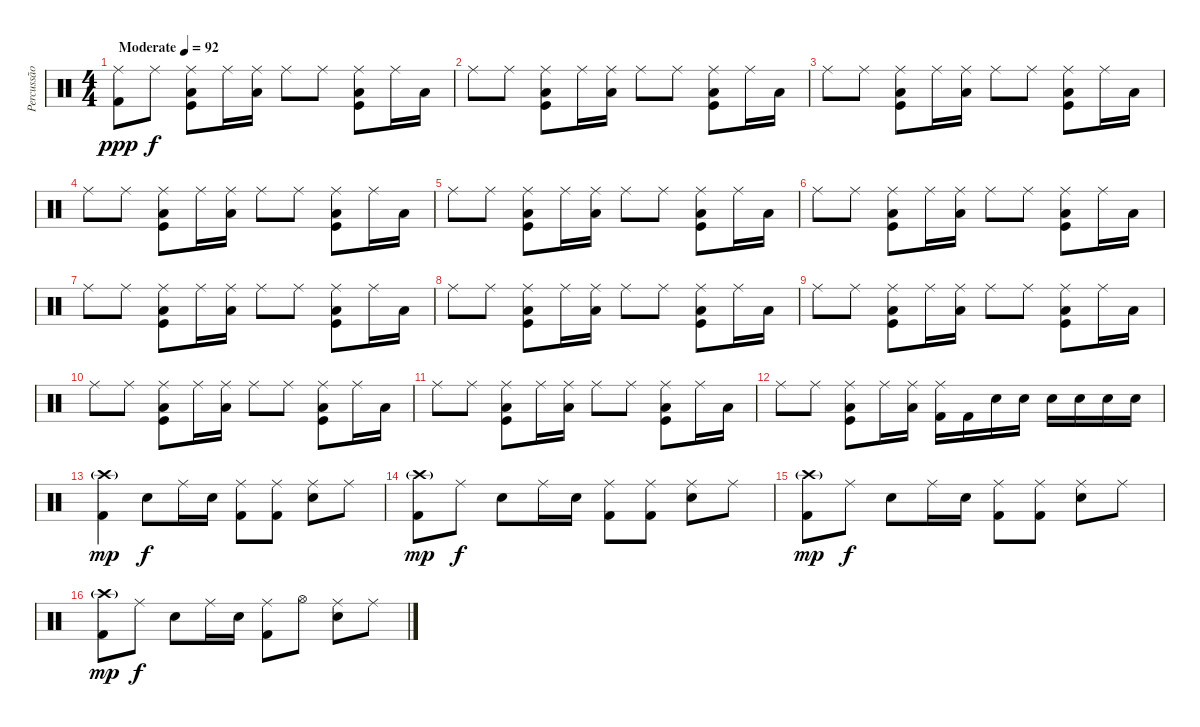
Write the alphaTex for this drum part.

\track ("Percussão - Drums" "Percussão ") {instrument percussion}
\staff {score}
\articulation defaults
\ts (4 4)
\tempo (92 "Moderate")
\clef neutral
\ks c
("Ride (middle)" "Kick (hit) 2").8{dy ppp} "Ride (middle)".8{dy f} ("Ride (middle)" "Kick (hit)" "Low Floor Tom (hit)").8 "Ride (middle)".16 ("Ride (middle)" "Low Floor Tom (hit)").16 "Ride (middle)".8 "Ride (middle)".8 ("Ride (middle)" "Kick (hit)" "Low Floor Tom (hit)").8 "Ride (middle)".16 "Low Floor Tom (hit)".16 |
"Ride (middle)".8 "Ride (middle)".8 ("Ride (middle)" "Kick (hit)" "Low Floor Tom (hit)").8 "Ride (middle)".16 ("Ride (middle)" "Low Floor Tom (hit)").16 "Ride (middle)".8 "Ride (middle)".8 ("Ride (middle)" "Kick (hit)" "Low Floor Tom (hit)").8 "Ride (middle)".16 "Low Floor Tom (hit)".16 |
"Ride (middle)".8 "Ride (middle)".8 ("Ride (middle)" "Kick (hit)" "Low Floor Tom (hit)").8 "Ride (middle)".16 ("Ride (middle)" "Low Floor Tom (hit)").16 "Ride (middle)".8 "Ride (middle)".8 ("Ride (middle)" "Kick (hit)" "Low Floor Tom (hit)").8 "Ride (middle)".16 "Low Floor Tom (hit)".16 |
"Ride (middle)".8 "Ride (middle)".8 ("Ride (middle)" "Kick (hit)" "Low Floor Tom (hit)").8 "Ride (middle)".16 ("Ride (middle)" "Low Floor Tom (hit)").16 "Ride (middle)".8 "Ride (middle)".8 ("Ride (middle)" "Kick (hit)" "Low Floor Tom (hit)").8 "Ride (middle)".16 "Low Floor Tom (hit)".16 |
"Ride (middle)".8 "Ride (middle)".8 ("Ride (middle)" "Kick (hit)" "Low Floor Tom (hit)").8 "Ride (middle)".16 ("Ride (middle)" "Low Floor Tom (hit)").16 "Ride (middle)".8 "Ride (middle)".8 ("Ride (middle)" "Kick (hit)" "Low Floor Tom (hit)").8 "Ride (middle)".16 "Low Floor Tom (hit)".16 |
"Ride (middle)".8 "Ride (middle)".8 ("Ride (middle)" "Kick (hit)" "Low Floor Tom (hit)").8 "Ride (middle)".16 ("Ride (middle)" "Low Floor Tom (hit)").16 "Ride (middle)".8 "Ride (middle)".8 ("Ride (middle)" "Kick (hit)" "Low Floor Tom (hit)").8 "Ride (middle)".16 "Low Floor Tom (hit)".16 |
"Ride (middle)".8 "Ride (middle)".8 ("Ride (middle)" "Kick (hit)" "Low Floor Tom (hit)").8 "Ride (middle)".16 ("Ride (middle)" "Low Floor Tom (hit)").16 "Ride (middle)".8 "Ride (middle)".8 ("Ride (middle)" "Kick (hit)" "Low Floor Tom (hit)").8 "Ride (middle)".16 "Low Floor Tom (hit)".16 |
"Ride (middle)".8 "Ride (middle)".8 ("Ride (middle)" "Kick (hit)" "Low Floor Tom (hit)").8 "Ride (middle)".16 ("Ride (middle)" "Low Floor Tom (hit)").16 "Ride (middle)".8 "Ride (middle)".8 ("Ride (middle)" "Kick (hit)" "Low Floor Tom (hit)").8 "Ride (middle)".16 "Low Floor Tom (hit)".16 |
"Ride (middle)".8 "Ride (middle)".8 ("Ride (middle)" "Kick (hit)" "Low Floor Tom (hit)").8 "Ride (middle)".16 ("Ride (middle)" "Low Floor Tom (hit)").16 "Ride (middle)".8 "Ride (middle)".8 ("Ride (middle)" "Kick (hit)" "Low Floor Tom (hit)").8 "Ride (middle)".16 "Low Floor Tom (hit)".16 |
"Ride (middle)".8 "Ride (middle)".8 ("Ride (middle)" "Kick (hit)" "Low Floor Tom (hit)").8 "Ride (middle)".16 ("Ride (middle)" "Low Floor Tom (hit)").16 "Ride (middle)".8 "Ride (middle)".8 ("Ride (middle)" "Kick (hit)" "Low Floor Tom (hit)").8 "Ride (middle)".16 "Low Floor Tom (hit)".16 |
"Ride (middle)".8 "Ride (middle)".8 ("Ride (middle)" "Kick (hit)" "Low Floor Tom (hit)").8 "Ride (middle)".16 ("Ride (middle)" "Low Floor Tom (hit)").16 "Ride (middle)".8 "Ride (middle)".8 ("Ride (middle)" "Kick (hit)" "Low Floor Tom (hit)").8 "Ride (middle)".16 "Low Floor Tom (hit)".16 |
"Ride (middle)".8 "Ride (middle)".8 ("Ride (middle)" "Kick (hit)" "Low Floor Tom (hit)").8 "Ride (middle)".16 ("Ride (middle)" "Low Floor Tom (hit)").16 ("Ride (middle)" "Kick (hit) 2").16 "Kick (hit) 2".16 "Snare (hit) 2".16 "Snare (hit) 2".16 "Snare (hit) 2".16 "Snare (hit) 2".16 "Snare (hit) 2".16 "Snare (hit) 2".16 |
("Crash high (hit)"{g} "Kick (hit) 2").4{dy mp} "Snare (hit) 2".8{dy f} "Ride (middle)".16 "Snare (hit) 2".16 ("Ride (middle)" "Kick (hit) 2").8 ("Ride (middle)" "Kick (hit) 2").8 ("Ride (middle)" "Snare (hit) 2").8 "Ride (middle)".8 |
("Crash high (hit)"{g} "Kick (hit) 2").8{dy mp} "Ride (middle)".8{dy f} "Snare (hit) 2".8 "Ride (middle)".16 "Snare (hit) 2".16 ("Ride (middle)" "Kick (hit) 2").8 ("Ride (middle)" "Kick (hit) 2").8 ("Ride (middle)" "Snare (hit) 2").8 "Ride (middle)".8 |
("Crash high (hit)"{g} "Kick (hit) 2").8{dy mp} "Ride (middle)".8{dy f} "Snare (hit) 2".8 "Ride (middle)".16 "Snare (hit) 2".16 ("Ride (middle)" "Kick (hit) 2").8 ("Ride (middle)" "Kick (hit) 2").8 ("Ride (middle)" "Snare (hit) 2").8 "Ride (middle)".8 |
("Crash high (hit)"{g} "Kick (hit) 2").8{dy mp} "Ride (middle)".8{dy f} "Snare (hit) 2".8 "Ride (middle)".16 "Snare (hit) 2".16 ("Ride (middle)" "Kick (hit) 2").8 "Hi-Hat (open)".8 ("Ride (middle)" "Snare (hit) 2").8 "Ride (middle)".8
